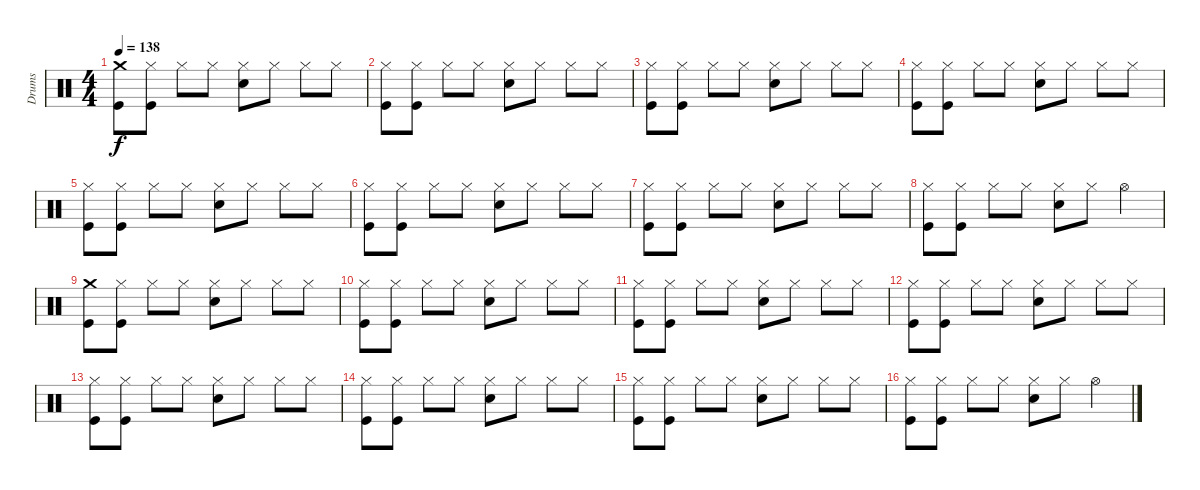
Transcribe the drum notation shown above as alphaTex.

\track ("Drums" "Drums") {instrument percussion}
\staff {score}
\articulation defaults
\ts (4 4)
\tempo 138
\clef neutral
\ks c
("Crash medium (hit)" "Kick (hit)").8{dy f} ("Hi-Hat (closed)" "Kick (hit)").8 "Hi-Hat (closed)".8 "Hi-Hat (closed)".8 ("Hi-Hat (closed)" "Snare (hit) 2").8 "Hi-Hat (closed)".8 "Hi-Hat (closed)".8 "Hi-Hat (closed)".8 |
("Hi-Hat (closed)" "Kick (hit)").8 ("Hi-Hat (closed)" "Kick (hit)").8 "Hi-Hat (closed)".8 "Hi-Hat (closed)".8 ("Hi-Hat (closed)" "Snare (hit) 2").8 "Hi-Hat (closed)".8 "Hi-Hat (closed)".8 "Hi-Hat (closed)".8 |
("Hi-Hat (closed)" "Kick (hit)").8 ("Hi-Hat (closed)" "Kick (hit)").8 "Hi-Hat (closed)".8 "Hi-Hat (closed)".8 ("Hi-Hat (closed)" "Snare (hit) 2").8 "Hi-Hat (closed)".8 "Hi-Hat (closed)".8 "Hi-Hat (closed)".8 |
("Hi-Hat (closed)" "Kick (hit)").8 ("Hi-Hat (closed)" "Kick (hit)").8 "Hi-Hat (closed)".8 "Hi-Hat (closed)".8 ("Hi-Hat (closed)" "Snare (hit) 2").8 "Hi-Hat (closed)".8 "Hi-Hat (closed)".8 "Hi-Hat (closed)".8 |
("Hi-Hat (closed)" "Kick (hit)").8 ("Hi-Hat (closed)" "Kick (hit)").8 "Hi-Hat (closed)".8 "Hi-Hat (closed)".8 ("Hi-Hat (closed)" "Snare (hit) 2").8 "Hi-Hat (closed)".8 "Hi-Hat (closed)".8 "Hi-Hat (closed)".8 |
("Hi-Hat (closed)" "Kick (hit)").8 ("Hi-Hat (closed)" "Kick (hit)").8 "Hi-Hat (closed)".8 "Hi-Hat (closed)".8 ("Hi-Hat (closed)" "Snare (hit) 2").8 "Hi-Hat (closed)".8 "Hi-Hat (closed)".8 "Hi-Hat (closed)".8 |
("Hi-Hat (closed)" "Kick (hit)").8 ("Hi-Hat (closed)" "Kick (hit)").8 "Hi-Hat (closed)".8 "Hi-Hat (closed)".8 ("Hi-Hat (closed)" "Snare (hit) 2").8 "Hi-Hat (closed)".8 "Hi-Hat (closed)".8 "Hi-Hat (closed)".8 |
("Hi-Hat (closed)" "Kick (hit)").8 ("Hi-Hat (closed)" "Kick (hit)").8 "Hi-Hat (closed)".8 "Hi-Hat (closed)".8 ("Hi-Hat (closed)" "Snare (hit) 2").8 "Hi-Hat (closed)".8 "Hi-Hat (open)".4 |
("Crash medium (hit)" "Kick (hit)").8 ("Hi-Hat (closed)" "Kick (hit)").8 "Hi-Hat (closed)".8 "Hi-Hat (closed)".8 ("Hi-Hat (closed)" "Snare (hit) 2").8 "Hi-Hat (closed)".8 "Hi-Hat (closed)".8 "Hi-Hat (closed)".8 |
("Hi-Hat (closed)" "Kick (hit)").8 ("Hi-Hat (closed)" "Kick (hit)").8 "Hi-Hat (closed)".8 "Hi-Hat (closed)".8 ("Hi-Hat (closed)" "Snare (hit) 2").8 "Hi-Hat (closed)".8 "Hi-Hat (closed)".8 "Hi-Hat (closed)".8 |
("Hi-Hat (closed)" "Kick (hit)").8 ("Hi-Hat (closed)" "Kick (hit)").8 "Hi-Hat (closed)".8 "Hi-Hat (closed)".8 ("Hi-Hat (closed)" "Snare (hit) 2").8 "Hi-Hat (closed)".8 "Hi-Hat (closed)".8 "Hi-Hat (closed)".8 |
("Hi-Hat (closed)" "Kick (hit)").8 ("Hi-Hat (closed)" "Kick (hit)").8 "Hi-Hat (closed)".8 "Hi-Hat (closed)".8 ("Hi-Hat (closed)" "Snare (hit) 2").8 "Hi-Hat (closed)".8 "Hi-Hat (closed)".8 "Hi-Hat (closed)".8 |
("Hi-Hat (closed)" "Kick (hit)").8 ("Hi-Hat (closed)" "Kick (hit)").8 "Hi-Hat (closed)".8 "Hi-Hat (closed)".8 ("Hi-Hat (closed)" "Snare (hit) 2").8 "Hi-Hat (closed)".8 "Hi-Hat (closed)".8 "Hi-Hat (closed)".8 |
("Hi-Hat (closed)" "Kick (hit)").8 ("Hi-Hat (closed)" "Kick (hit)").8 "Hi-Hat (closed)".8 "Hi-Hat (closed)".8 ("Hi-Hat (closed)" "Snare (hit) 2").8 "Hi-Hat (closed)".8 "Hi-Hat (closed)".8 "Hi-Hat (closed)".8 |
("Hi-Hat (closed)" "Kick (hit)").8 ("Hi-Hat (closed)" "Kick (hit)").8 "Hi-Hat (closed)".8 "Hi-Hat (closed)".8 ("Hi-Hat (closed)" "Snare (hit) 2").8 "Hi-Hat (closed)".8 "Hi-Hat (closed)".8 "Hi-Hat (closed)".8 |
("Hi-Hat (closed)" "Kick (hit)").8 ("Hi-Hat (closed)" "Kick (hit)").8 "Hi-Hat (closed)".8 "Hi-Hat (closed)".8 ("Hi-Hat (closed)" "Snare (hit) 2").8 "Hi-Hat (closed)".8 "Hi-Hat (open)".4
